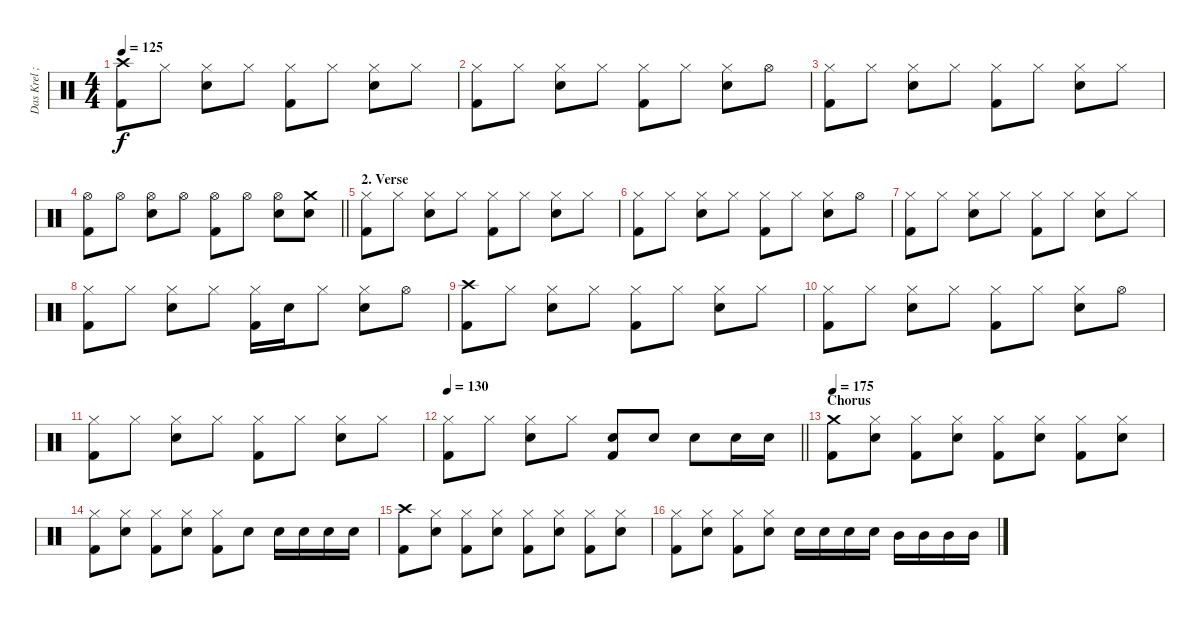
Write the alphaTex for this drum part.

\track ("Das Krel ;-)" "Das Krel ;") {instrument percussion}
\staff {score}
\articulation defaults
\ts (4 4)
\tempo 125
\clef neutral
\ks c
("Crash high (hit)" "Kick (hit) 2").8{dy f} "Hi-Hat (closed)".8 ("Hi-Hat (closed)" "Snare (hit) 2").8 "Hi-Hat (closed)".8 ("Hi-Hat (closed)" "Kick (hit) 2").8 "Hi-Hat (closed)".8 ("Hi-Hat (closed)" "Snare (hit) 2").8 "Hi-Hat (closed)".8 |
("Hi-Hat (closed)" "Kick (hit) 2").8 "Hi-Hat (closed)".8 ("Hi-Hat (closed)" "Snare (hit) 2").8 "Hi-Hat (closed)".8 ("Hi-Hat (closed)" "Kick (hit) 2").8 "Hi-Hat (closed)".8 ("Hi-Hat (closed)" "Snare (hit) 2").8 "Hi-Hat (open)".8 |
("Hi-Hat (closed)" "Kick (hit) 2").8 "Hi-Hat (closed)".8 ("Hi-Hat (closed)" "Snare (hit) 2").8 "Hi-Hat (closed)".8 ("Hi-Hat (closed)" "Kick (hit) 2").8 "Hi-Hat (closed)".8 ("Hi-Hat (closed)" "Snare (hit) 2").8 "Hi-Hat (closed)".8 |
\barLineRight lightlight
("Hi-Hat (open)" "Kick (hit) 2").8 "Hi-Hat (open)".8 ("Hi-Hat (open)" "Snare (hit) 2").8 "Hi-Hat (open)".8 ("Hi-Hat (open)" "Kick (hit) 2").8 "Hi-Hat (open)".8 ("Hi-Hat (open)" "Snare (hit) 2").8 ("Crash medium (hit)" "Snare (hit) 2").8 |
\section ("" "2. Verse")
("Hi-Hat (closed)" "Kick (hit) 2").8 "Hi-Hat (closed)".8 ("Hi-Hat (closed)" "Snare (hit) 2").8 "Hi-Hat (closed)".8 ("Hi-Hat (closed)" "Kick (hit) 2").8 "Hi-Hat (closed)".8 ("Hi-Hat (closed)" "Snare (hit) 2").8 "Hi-Hat (closed)".8 |
("Hi-Hat (closed)" "Kick (hit) 2").8 "Hi-Hat (closed)".8 ("Hi-Hat (closed)" "Snare (hit) 2").8 "Hi-Hat (closed)".8 ("Hi-Hat (closed)" "Kick (hit) 2").8 "Hi-Hat (closed)".8 ("Hi-Hat (closed)" "Snare (hit) 2").8 "Hi-Hat (open)".8 |
("Hi-Hat (closed)" "Kick (hit) 2").8 "Hi-Hat (closed)".8 ("Hi-Hat (closed)" "Snare (hit) 2").8 "Hi-Hat (closed)".8 ("Hi-Hat (closed)" "Kick (hit) 2").8 "Hi-Hat (closed)".8 ("Hi-Hat (closed)" "Snare (hit) 2").8 "Hi-Hat (closed)".8 |
("Hi-Hat (closed)" "Kick (hit) 2").8 "Hi-Hat (closed)".8 ("Hi-Hat (closed)" "Snare (hit) 2").8 "Hi-Hat (closed)".8 ("Hi-Hat (closed)" "Kick (hit) 2").16 "Snare (hit) 2".16 "Hi-Hat (closed)".8 ("Hi-Hat (closed)" "Snare (hit) 2").8 "Hi-Hat (open)".8 |
("Crash high (hit)" "Kick (hit) 2").8 "Hi-Hat (closed)".8 ("Hi-Hat (closed)" "Snare (hit) 2").8 "Hi-Hat (closed)".8 ("Hi-Hat (closed)" "Kick (hit) 2").8 "Hi-Hat (closed)".8 ("Hi-Hat (closed)" "Snare (hit) 2").8 "Hi-Hat (closed)".8 |
("Hi-Hat (closed)" "Kick (hit) 2").8 "Hi-Hat (closed)".8 ("Hi-Hat (closed)" "Snare (hit) 2").8 "Hi-Hat (closed)".8 ("Hi-Hat (closed)" "Kick (hit) 2").8 "Hi-Hat (closed)".8 ("Hi-Hat (closed)" "Snare (hit) 2").8 "Hi-Hat (open)".8 |
("Hi-Hat (closed)" "Kick (hit) 2").8 "Hi-Hat (closed)".8 ("Hi-Hat (closed)" "Snare (hit) 2").8 "Hi-Hat (closed)".8 ("Hi-Hat (closed)" "Kick (hit) 2").8 "Hi-Hat (closed)".8 ("Hi-Hat (closed)" "Snare (hit) 2").8 "Hi-Hat (closed)".8 |
\tempo 130
\barLineRight lightlight
("Hi-Hat (closed)" "Kick (hit) 2").8 "Hi-Hat (closed)".8 ("Hi-Hat (closed)" "Snare (hit) 2").8 "Hi-Hat (closed)".8 ("Snare (hit) 2" "Kick (hit) 2").8{bd 240} "Snare (hit) 2".8 "Snare (hit) 2".8 "Snare (hit) 2".16 "Snare (hit) 2".16 |
\section ("" "Chorus")
\tempo 175
("Crash medium (hit)" "Kick (hit) 2").8 ("Hi-Hat (closed)" "Snare (hit) 2").8 ("Hi-Hat (closed)" "Kick (hit) 2").8 ("Hi-Hat (closed)" "Snare (hit) 2").8 ("Hi-Hat (closed)" "Kick (hit) 2").8 ("Hi-Hat (closed)" "Snare (hit) 2").8 ("Hi-Hat (closed)" "Kick (hit) 2").8 ("Hi-Hat (closed)" "Snare (hit) 2").8 |
("Hi-Hat (closed)" "Kick (hit) 2").8 ("Hi-Hat (closed)" "Snare (hit) 2").8 ("Hi-Hat (closed)" "Kick (hit) 2").8 ("Hi-Hat (closed)" "Snare (hit) 2").8 ("Hi-Hat (closed)" "Kick (hit) 2").8 "Snare (hit) 2".8 "Snare (hit) 2".16 "Snare (hit) 2".16 "Snare (hit) 2".16 "Snare (hit) 2".16 |
("Crash high (hit)" "Kick (hit) 2").8 ("Hi-Hat (closed)" "Snare (hit) 2").8 ("Hi-Hat (closed)" "Kick (hit) 2").8 ("Hi-Hat (closed)" "Snare (hit) 2").8 ("Hi-Hat (closed)" "Kick (hit) 2").8 ("Hi-Hat (closed)" "Snare (hit) 2").8 ("Hi-Hat (closed)" "Kick (hit) 2").8 ("Hi-Hat (closed)" "Snare (hit) 2").8 |
("Hi-Hat (closed)" "Kick (hit) 2").8 ("Hi-Hat (closed)" "Snare (hit) 2").8 ("Hi-Hat (closed)" "Kick (hit) 2").8 ("Hi-Hat (closed)" "Snare (hit) 2").8 "Snare (hit) 2".16 "Snare (hit) 2".16 "Snare (hit) 2".16 "Snare (hit) 2".16 "Mid Tom (hit)".16 "Mid Tom (hit)".16 "Mid Tom (hit)".16 "Mid Tom (hit)".16
